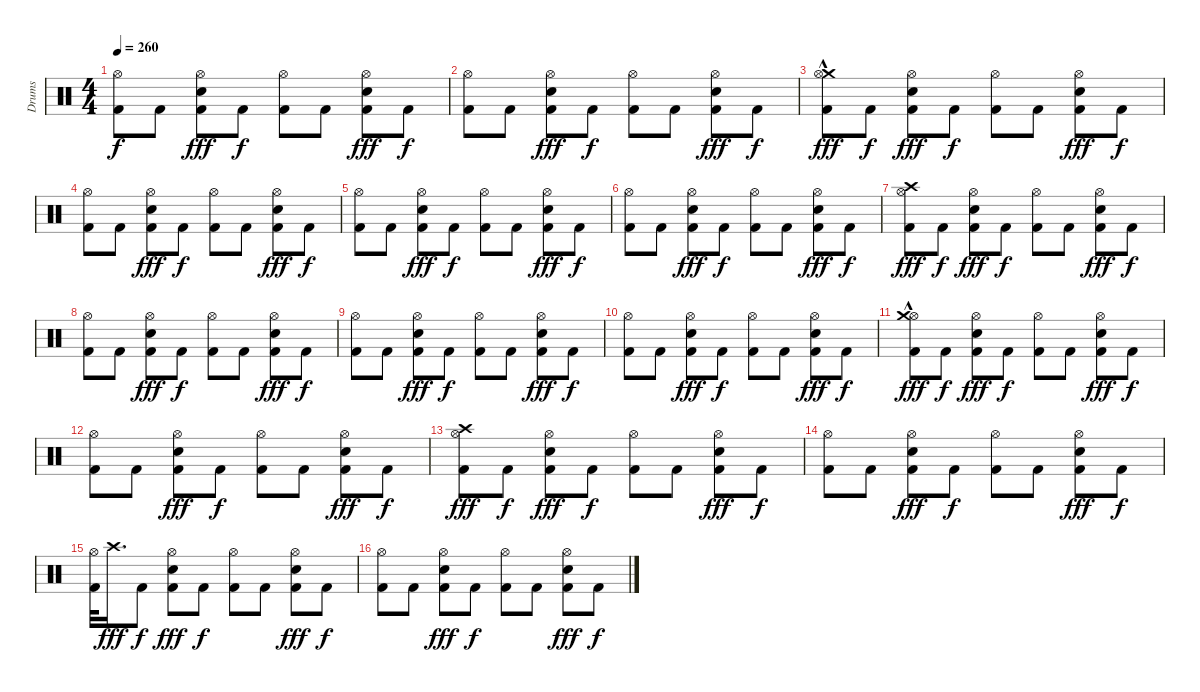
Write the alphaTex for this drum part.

\track ("Drums" "Drums") {instrument percussion}
\staff {score}
\articulation defaults
\ts (4 4)
\tempo 260
\clef neutral
\ks c
("Hi-Hat (open)" "Kick (hit) 2").8{dy f} "Kick (hit) 2".8 ("Hi-Hat (open)" "Snare (hit) 2" "Kick (hit) 2").8{dy fff} "Kick (hit) 2".8{dy f} ("Hi-Hat (open)" "Kick (hit) 2").8 "Kick (hit) 2".8 ("Hi-Hat (open)" "Snare (hit) 2" "Kick (hit) 2").8{dy fff} "Kick (hit) 2".8{dy f} |
("Hi-Hat (open)" "Kick (hit) 2").8 "Kick (hit) 2".8 ("Hi-Hat (open)" "Snare (hit) 2" "Kick (hit) 2").8{dy fff} "Kick (hit) 2".8{dy f} ("Hi-Hat (open)" "Kick (hit) 2").8 "Kick (hit) 2".8 ("Hi-Hat (open)" "Snare (hit) 2" "Kick (hit) 2").8{dy fff} "Kick (hit) 2".8{dy f} |
("Crash medium (hit)"{hac} "Hi-Hat (open)" "Kick (hit) 2").8{dy fff} "Kick (hit) 2".8{dy f} ("Hi-Hat (open)" "Snare (hit) 2" "Kick (hit) 2").8{dy fff} "Kick (hit) 2".8{dy f} ("Hi-Hat (open)" "Kick (hit) 2").8 "Kick (hit) 2".8 ("Hi-Hat (open)" "Snare (hit) 2" "Kick (hit) 2").8{dy fff} "Kick (hit) 2".8{dy f} |
("Hi-Hat (open)" "Kick (hit) 2").8 "Kick (hit) 2".8 ("Hi-Hat (open)" "Snare (hit) 2" "Kick (hit) 2").8{dy fff} "Kick (hit) 2".8{dy f} ("Hi-Hat (open)" "Kick (hit) 2").8 "Kick (hit) 2".8 ("Hi-Hat (open)" "Snare (hit) 2" "Kick (hit) 2").8{dy fff} "Kick (hit) 2".8{dy f} |
("Hi-Hat (open)" "Kick (hit) 2").8 "Kick (hit) 2".8 ("Hi-Hat (open)" "Snare (hit) 2" "Kick (hit) 2").8{dy fff} "Kick (hit) 2".8{dy f} ("Hi-Hat (open)" "Kick (hit) 2").8 "Kick (hit) 2".8 ("Hi-Hat (open)" "Snare (hit) 2" "Kick (hit) 2").8{dy fff} "Kick (hit) 2".8{dy f} |
("Hi-Hat (open)" "Kick (hit) 2").8 "Kick (hit) 2".8 ("Hi-Hat (open)" "Snare (hit) 2" "Kick (hit) 2").8{dy fff} "Kick (hit) 2".8{dy f} ("Hi-Hat (open)" "Kick (hit) 2").8 "Kick (hit) 2".8 ("Hi-Hat (open)" "Snare (hit) 2" "Kick (hit) 2").8{dy fff} "Kick (hit) 2".8{dy f} |
("Hi-Hat (open)" "Kick (hit) 2" "Crash high (hit)").8{dy fff} "Kick (hit) 2".8{dy f} ("Hi-Hat (open)" "Snare (hit) 2" "Kick (hit) 2").8{dy fff} "Kick (hit) 2".8{dy f} ("Hi-Hat (open)" "Kick (hit) 2").8 "Kick (hit) 2".8 ("Hi-Hat (open)" "Snare (hit) 2" "Kick (hit) 2").8{dy fff} "Kick (hit) 2".8{dy f} |
("Hi-Hat (open)" "Kick (hit) 2").8 "Kick (hit) 2".8 ("Hi-Hat (open)" "Snare (hit) 2" "Kick (hit) 2").8{dy fff} "Kick (hit) 2".8{dy f} ("Hi-Hat (open)" "Kick (hit) 2").8 "Kick (hit) 2".8 ("Hi-Hat (open)" "Snare (hit) 2" "Kick (hit) 2").8{dy fff} "Kick (hit) 2".8{dy f} |
("Hi-Hat (open)" "Kick (hit) 2").8 "Kick (hit) 2".8 ("Hi-Hat (open)" "Snare (hit) 2" "Kick (hit) 2").8{dy fff} "Kick (hit) 2".8{dy f} ("Hi-Hat (open)" "Kick (hit) 2").8 "Kick (hit) 2".8 ("Hi-Hat (open)" "Snare (hit) 2" "Kick (hit) 2").8{dy fff} "Kick (hit) 2".8{dy f} |
("Hi-Hat (open)" "Kick (hit) 2").8 "Kick (hit) 2".8 ("Hi-Hat (open)" "Snare (hit) 2" "Kick (hit) 2").8{dy fff} "Kick (hit) 2".8{dy f} ("Hi-Hat (open)" "Kick (hit) 2").8 "Kick (hit) 2".8 ("Hi-Hat (open)" "Snare (hit) 2" "Kick (hit) 2").8{dy fff} "Kick (hit) 2".8{dy f} |
("Hi-Hat (open)" "Kick (hit) 2" "Crash medium (hit)"{hac}).8{dy fff} "Kick (hit) 2".8{dy f} ("Hi-Hat (open)" "Snare (hit) 2" "Kick (hit) 2").8{dy fff} "Kick (hit) 2".8{dy f} ("Hi-Hat (open)" "Kick (hit) 2").8 "Kick (hit) 2".8 ("Hi-Hat (open)" "Snare (hit) 2" "Kick (hit) 2").8{dy fff} "Kick (hit) 2".8{dy f} |
("Hi-Hat (open)" "Kick (hit) 2").8 "Kick (hit) 2".8 ("Hi-Hat (open)" "Snare (hit) 2" "Kick (hit) 2").8{dy fff} "Kick (hit) 2".8{dy f} ("Hi-Hat (open)" "Kick (hit) 2").8 "Kick (hit) 2".8 ("Hi-Hat (open)" "Snare (hit) 2" "Kick (hit) 2").8{dy fff} "Kick (hit) 2".8{dy f} |
("Hi-Hat (open)" "Kick (hit) 2" "Crash high (hit)").8{dy fff} "Kick (hit) 2".8{dy f} ("Hi-Hat (open)" "Snare (hit) 2" "Kick (hit) 2").8{dy fff} "Kick (hit) 2".8{dy f} ("Hi-Hat (open)" "Kick (hit) 2").8 "Kick (hit) 2".8 ("Hi-Hat (open)" "Snare (hit) 2" "Kick (hit) 2").8{dy fff} "Kick (hit) 2".8{dy f} |
("Hi-Hat (open)" "Kick (hit) 2").8 "Kick (hit) 2".8 ("Hi-Hat (open)" "Snare (hit) 2" "Kick (hit) 2").8{dy fff} "Kick (hit) 2".8{dy f} ("Hi-Hat (open)" "Kick (hit) 2").8 "Kick (hit) 2".8 ("Hi-Hat (open)" "Snare (hit) 2" "Kick (hit) 2").8{dy fff} "Kick (hit) 2".8{dy f} |
("Hi-Hat (open)" "Kick (hit) 2").32 "Crash high (hit)".16{d dy fff} "Kick (hit) 2".8{dy f} ("Hi-Hat (open)" "Snare (hit) 2" "Kick (hit) 2").8{dy fff} "Kick (hit) 2".8{dy f} ("Hi-Hat (open)" "Kick (hit) 2").8 "Kick (hit) 2".8 ("Hi-Hat (open)" "Snare (hit) 2" "Kick (hit) 2").8{dy fff} "Kick (hit) 2".8{dy f} |
("Hi-Hat (open)" "Kick (hit) 2").8 "Kick (hit) 2".8 ("Hi-Hat (open)" "Snare (hit) 2" "Kick (hit) 2").8{dy fff} "Kick (hit) 2".8{dy f} ("Hi-Hat (open)" "Kick (hit) 2").8 "Kick (hit) 2".8 ("Hi-Hat (open)" "Snare (hit) 2" "Kick (hit) 2").8{dy fff} "Kick (hit) 2".8{dy f}
